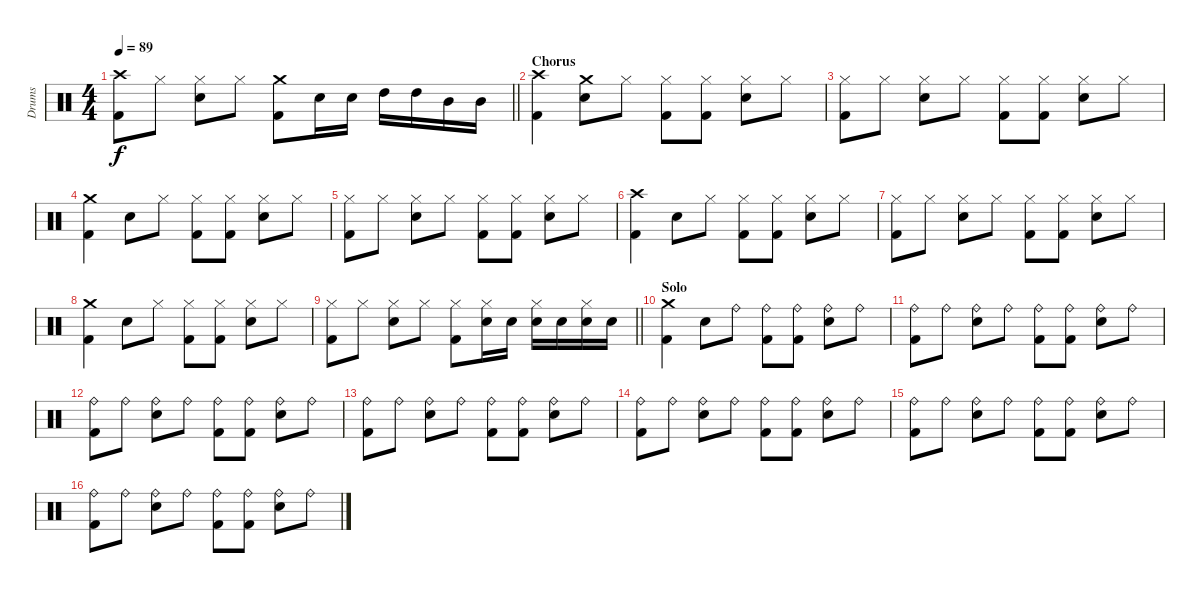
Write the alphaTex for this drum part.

\track ("Drums" "Drums") {instrument percussion}
\staff {score}
\articulation defaults
\ts (4 4)
\tempo 89
\clef neutral
\barLineRight lightlight
\ks c
("Kick (hit) 2" "Crash high (hit)").8{dy f} "Hi-Hat (closed)".8 ("Snare (hit) 2" "Hi-Hat (closed)").8 "Hi-Hat (closed)".8 ("Kick (hit) 2" "Crash medium (hit)").8 "Snare (hit) 2".16 "Snare (hit) 2".16 "High Tom (hit)".16 "High Tom (hit)".16 "Mid Tom (hit)".16 "Mid Tom (hit)".16 |
\section ("" "Chorus")
("Kick (hit) 2" "Crash high (hit)").4 ("Snare (hit) 2" "Crash medium (hit)").8 "Hi-Hat (closed)".8 ("Kick (hit) 2" "Hi-Hat (closed)").8 ("Kick (hit) 2" "Hi-Hat (closed)").8 ("Snare (hit) 2" "Hi-Hat (closed)").8 "Hi-Hat (closed)".8 |
("Kick (hit) 2" "Hi-Hat (closed)").8 "Hi-Hat (closed)".8 ("Snare (hit) 2" "Hi-Hat (closed)").8 "Hi-Hat (closed)".8 ("Kick (hit) 2" "Hi-Hat (closed)").8 ("Kick (hit) 2" "Hi-Hat (closed)").8 ("Snare (hit) 2" "Hi-Hat (closed)").8 "Hi-Hat (closed)".8 |
("Kick (hit) 2" "Crash medium (hit)").4 "Snare (hit) 2".8 "Hi-Hat (closed)".8 ("Kick (hit) 2" "Hi-Hat (closed)").8 ("Kick (hit) 2" "Hi-Hat (closed)").8 ("Snare (hit) 2" "Hi-Hat (closed)").8 "Hi-Hat (closed)".8 |
("Kick (hit) 2" "Hi-Hat (closed)").8 "Hi-Hat (closed)".8 ("Snare (hit) 2" "Hi-Hat (closed)").8 "Hi-Hat (closed)".8 ("Kick (hit) 2" "Hi-Hat (closed)").8 ("Kick (hit) 2" "Hi-Hat (closed)").8 ("Snare (hit) 2" "Hi-Hat (closed)").8 "Hi-Hat (closed)".8 |
("Kick (hit) 2" "Crash high (hit)").4 "Snare (hit) 2".8 "Hi-Hat (closed)".8 ("Kick (hit) 2" "Hi-Hat (closed)").8 ("Kick (hit) 2" "Hi-Hat (closed)").8 ("Snare (hit) 2" "Hi-Hat (closed)").8 "Hi-Hat (closed)".8 |
("Kick (hit) 2" "Hi-Hat (closed)").8 "Hi-Hat (closed)".8 ("Snare (hit) 2" "Hi-Hat (closed)").8 "Hi-Hat (closed)".8 ("Kick (hit) 2" "Hi-Hat (closed)").8 ("Kick (hit) 2" "Hi-Hat (closed)").8 ("Snare (hit) 2" "Hi-Hat (closed)").8 "Hi-Hat (closed)".8 |
("Kick (hit) 2" "Crash medium (hit)").4 "Snare (hit) 2".8 "Hi-Hat (closed)".8 ("Kick (hit) 2" "Hi-Hat (closed)").8 ("Kick (hit) 2" "Hi-Hat (closed)").8 ("Snare (hit) 2" "Hi-Hat (closed)").8 "Hi-Hat (closed)".8 |
\barLineRight lightlight
("Kick (hit) 2" "Hi-Hat (closed)").8 "Hi-Hat (closed)".8 ("Snare (hit) 2" "Hi-Hat (closed)").8 "Hi-Hat (closed)".8 ("Kick (hit) 2" "Hi-Hat (closed)").8 ("Snare (hit) 2" "Hi-Hat (closed)").16 "Snare (hit) 2".16 ("Snare (hit) 2" "Hi-Hat (closed)").16 "Snare (hit) 2".16 ("Snare (hit) 2" "Hi-Hat (closed)").16 "Snare (hit) 2".16 |
\section ("" "Solo")
("Kick (hit) 2" "Crash medium (hit)").4 "Snare (hit) 2".8 "Ride (bell)".8 ("Kick (hit) 2" "Ride (bell)").8 ("Kick (hit) 2" "Ride (bell)").8 ("Snare (hit) 2" "Ride (bell)").8 "Ride (bell)".8 |
("Kick (hit) 2" "Ride (bell)").8 "Ride (bell)".8 ("Snare (hit) 2" "Ride (bell)").8 "Ride (bell)".8 ("Kick (hit) 2" "Ride (bell)").8 ("Kick (hit) 2" "Ride (bell)").8 ("Snare (hit) 2" "Ride (bell)").8 "Ride (bell)".8 |
("Kick (hit) 2" "Ride (bell)").8 "Ride (bell)".8 ("Snare (hit) 2" "Ride (bell)").8 "Ride (bell)".8 ("Kick (hit) 2" "Ride (bell)").8 ("Kick (hit) 2" "Ride (bell)").8 ("Snare (hit) 2" "Ride (bell)").8 "Ride (bell)".8 |
("Kick (hit) 2" "Ride (bell)").8 "Ride (bell)".8 ("Snare (hit) 2" "Ride (bell)").8 "Ride (bell)".8 ("Kick (hit) 2" "Ride (bell)").8 ("Kick (hit) 2" "Ride (bell)").8 ("Snare (hit) 2" "Ride (bell)").8 "Ride (bell)".8 |
("Kick (hit) 2" "Ride (bell)").8 "Ride (bell)".8 ("Snare (hit) 2" "Ride (bell)").8 "Ride (bell)".8 ("Kick (hit) 2" "Ride (bell)").8 ("Kick (hit) 2" "Ride (bell)").8 ("Snare (hit) 2" "Ride (bell)").8 "Ride (bell)".8 |
("Kick (hit) 2" "Ride (bell)").8 "Ride (bell)".8 ("Snare (hit) 2" "Ride (bell)").8 "Ride (bell)".8 ("Kick (hit) 2" "Ride (bell)").8 ("Kick (hit) 2" "Ride (bell)").8 ("Snare (hit) 2" "Ride (bell)").8 "Ride (bell)".8 |
("Kick (hit) 2" "Ride (bell)").8 "Ride (bell)".8 ("Snare (hit) 2" "Ride (bell)").8 "Ride (bell)".8 ("Kick (hit) 2" "Ride (bell)").8 ("Kick (hit) 2" "Ride (bell)").8 ("Snare (hit) 2" "Ride (bell)").8 "Ride (bell)".8
